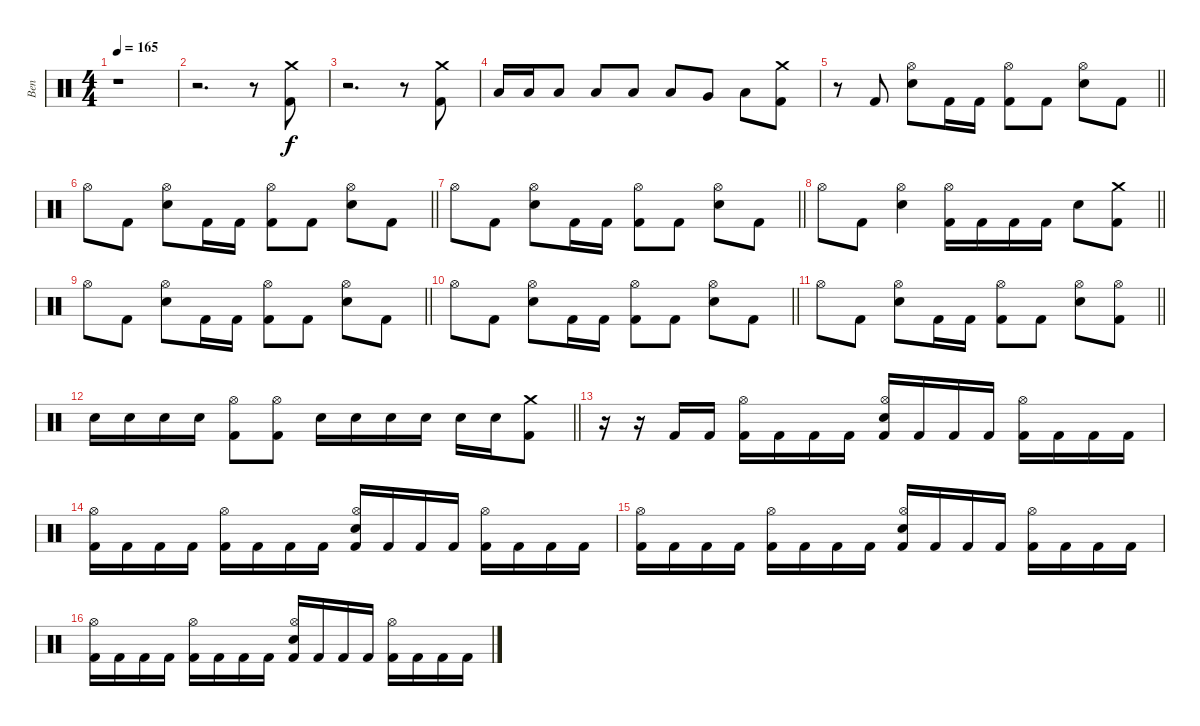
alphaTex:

\track ("Ben" "Ben") {instrument percussion}
\staff {score}
\articulation defaults
\ts (4 4)
\tempo 165
\clef neutral
\ks c
r.1{dy f} |
r.2{d} r.8 ("Crash medium (hit)" "Kick (hit) 2").8 |
r.2{d} r.8 ("Crash medium (hit)" "Kick (hit) 2").8 |
"Low Tom (hit)".16 "Low Tom (hit)".16 "Low Tom (hit)".8 "Low Tom (hit)".8 "Low Tom (hit)".8 "Low Tom (hit)".8 "Very Low Tom (hit)".8 "Low Floor Tom (hit)".8 ("Crash medium (hit)" "Kick (hit) 2").8 |
\barLineRight lightlight
r.8 "Kick (hit) 2".8 ("Hi-Hat (open)" "Electric Snare (hit)").8 "Kick (hit) 2".16 "Kick (hit) 2".16 ("Hi-Hat (open)" "Kick (hit) 2").8 "Kick (hit) 2".8 ("Hi-Hat (open)" "Electric Snare (hit)").8 "Kick (hit) 2".8 |
\barLineRight lightlight "Hi-Hat (open)".8 "Kick (hit) 2".8
("Hi-Hat (open)" "Electric Snare (hit)").8 "Kick (hit) 2".16 "Kick (hit) 2".16 ("Hi-Hat (open)" "Kick (hit) 2").8 "Kick (hit) 2".8 ("Hi-Hat (open)" "Electric Snare (hit)").8 "Kick (hit) 2".8 |
\barLineRight lightlight "Hi-Hat (open)".8 "Kick (hit) 2".8
("Hi-Hat (open)" "Electric Snare (hit)").8 "Kick (hit) 2".16 "Kick (hit) 2".16 ("Hi-Hat (open)" "Kick (hit) 2").8 "Kick (hit) 2".8 ("Hi-Hat (open)" "Electric Snare (hit)").8 "Kick (hit) 2".8 |
\barLineRight lightlight "Hi-Hat (open)".8 "Kick (hit) 2".8
("Hi-Hat (open)" "Electric Snare (hit)").4 ("Hi-Hat (open)" "Kick (hit) 2").16 "Kick (hit) 2".16 "Kick (hit) 2".16 "Kick (hit) 2".16 "Electric Snare (hit)".8 ("Crash medium (hit)" "Kick (hit) 2").8 |
\barLineRight lightlight "Hi-Hat (open)".8 "Kick (hit) 2".8
("Hi-Hat (open)" "Electric Snare (hit)").8 "Kick (hit) 2".16 "Kick (hit) 2".16 ("Hi-Hat (open)" "Kick (hit) 2").8 "Kick (hit) 2".8 ("Hi-Hat (open)" "Electric Snare (hit)").8 "Kick (hit) 2".8 |
\barLineRight lightlight "Hi-Hat (open)".8 "Kick (hit) 2".8
("Hi-Hat (open)" "Electric Snare (hit)").8 "Kick (hit) 2".16 "Kick (hit) 2".16 ("Hi-Hat (open)" "Kick (hit) 2").8 "Kick (hit) 2".8 ("Hi-Hat (open)" "Electric Snare (hit)").8 "Kick (hit) 2".8 |
\barLineRight lightlight "Hi-Hat (open)".8 "Kick (hit) 2".8
("Hi-Hat (open)" "Electric Snare (hit)").8 "Kick (hit) 2".16 "Kick (hit) 2".16 ("Hi-Hat (open)" "Kick (hit) 2").8 "Kick (hit) 2".8 ("Hi-Hat (open)" "Electric Snare (hit)").8 ("Hi-Hat (open)" "Kick (hit) 2").8 |
\barLineRight lightlight "Electric Snare (hit)".16 "Electric Snare (hit)".16 "Electric Snare (hit)".16 "Electric Snare (hit)".16
("Hi-Hat (open)" "Kick (hit) 2").8 ("Hi-Hat (open)" "Kick (hit) 2").8 "Electric Snare (hit)".16 "Electric Snare (hit)".16 "Electric Snare (hit)".16 "Electric Snare (hit)".16 "Electric Snare (hit)".16 "Electric Snare (hit)".16 ("Crash medium (hit)" "Kick (hit) 2").8 |
r.16 r.16 "Kick (hit) 2".16 "Kick (hit) 2".16 ("Hi-Hat (open)" "Kick (hit) 2").16 "Kick (hit) 2".16 "Kick (hit) 2".16 "Kick (hit) 2".16 ("Hi-Hat (open)" "Electric Snare (hit)" "Kick (hit) 2").16 "Kick (hit) 2".16 "Kick (hit) 2".16 "Kick (hit) 2".16 ("Hi-Hat (open)" "Kick (hit) 2").16 "Kick (hit) 2".16 "Kick (hit) 2".16 "Kick (hit) 2".16 |
("Hi-Hat (open)" "Kick (hit) 2").16 "Kick (hit) 2".16 "Kick (hit) 2".16 "Kick (hit) 2".16 ("Hi-Hat (open)" "Kick (hit) 2").16 "Kick (hit) 2".16 "Kick (hit) 2".16 "Kick (hit) 2".16 ("Hi-Hat (open)" "Electric Snare (hit)" "Kick (hit) 2").16 "Kick (hit) 2".16 "Kick (hit) 2".16 "Kick (hit) 2".16 ("Hi-Hat (open)" "Kick (hit) 2").16 "Kick (hit) 2".16 "Kick (hit) 2".16 "Kick (hit) 2".16 |
("Hi-Hat (open)" "Kick (hit) 2").16 "Kick (hit) 2".16 "Kick (hit) 2".16 "Kick (hit) 2".16 ("Hi-Hat (open)" "Kick (hit) 2").16 "Kick (hit) 2".16 "Kick (hit) 2".16 "Kick (hit) 2".16 ("Hi-Hat (open)" "Electric Snare (hit)" "Kick (hit) 2").16 "Kick (hit) 2".16 "Kick (hit) 2".16 "Kick (hit) 2".16 ("Hi-Hat (open)" "Kick (hit) 2").16 "Kick (hit) 2".16 "Kick (hit) 2".16 "Kick (hit) 2".16 |
("Hi-Hat (open)" "Kick (hit) 2").16 "Kick (hit) 2".16 "Kick (hit) 2".16 "Kick (hit) 2".16 ("Hi-Hat (open)" "Kick (hit) 2").16 "Kick (hit) 2".16 "Kick (hit) 2".16 "Kick (hit) 2".16 ("Hi-Hat (open)" "Electric Snare (hit)" "Kick (hit) 2").16 "Kick (hit) 2".16 "Kick (hit) 2".16 "Kick (hit) 2".16 ("Hi-Hat (open)" "Kick (hit) 2").16 "Kick (hit) 2".16 "Kick (hit) 2".16 "Kick (hit) 2".16
